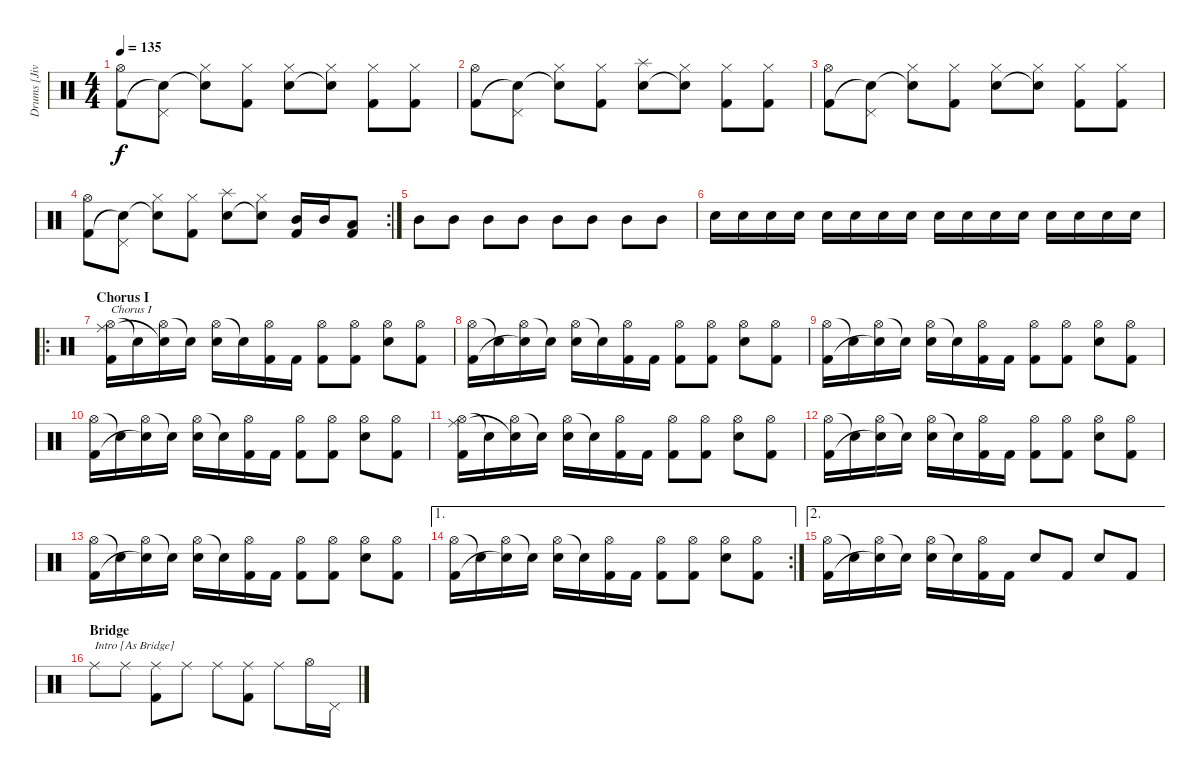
\track ("Drums [Jivarp]" "Drums [Jiv") {instrument percussion}
\staff {score}
\articulation defaults
\ts (4 4)
\tempo 135
\clef neutral
\ks c
("Hi-Hat (open)" "Kick (hit) 2").8{dy f} ("Pedal Hi-Hat (hit)" "Snare (hit)"{t}).8 ("Hi-Hat (closed)" "Snare (hit)"{t}).8 ("Hi-Hat (closed)" "Kick (hit) 2").8 ("Hi-Hat (closed)" "Electric Snare (hit)").8 ("Hi-Hat (closed)" "Snare (hit)"{t}).8 ("Hi-Hat (closed)" "Kick (hit) 2").8 ("Hi-Hat (closed)" "Kick (hit) 2").8 |
("Hi-Hat (open)" "Kick (hit) 2").8 ("Pedal Hi-Hat (hit)" "Snare (hit)"{t}).8 ("Hi-Hat (closed)" "Snare (hit)"{t}).8 ("Hi-Hat (closed)" "Kick (hit) 2").8 ("Splash (hit)" "Electric Snare (hit)").8 ("Hi-Hat (closed)" "Snare (hit)"{t}).8 ("Hi-Hat (closed)" "Kick (hit) 2").8 ("Hi-Hat (closed)" "Kick (hit) 2").8 |
("Hi-Hat (open)" "Kick (hit) 2").8 ("Pedal Hi-Hat (hit)" "Snare (hit)"{t}).8 ("Hi-Hat (closed)" "Snare (hit)"{t}).8 ("Hi-Hat (closed)" "Kick (hit) 2").8 ("Hi-Hat (closed)" "Electric Snare (hit)").8 ("Hi-Hat (closed)" "Snare (hit)"{t}).8 ("Hi-Hat (closed)" "Kick (hit) 2").8 ("Hi-Hat (closed)" "Kick (hit) 2").8 |
\rc 2
("Hi-Hat (open)" "Kick (hit) 2").8 ("Pedal Hi-Hat (hit)" "Snare (hit)"{t}).8 ("Hi-Hat (closed)" "Snare (hit)"{t}).8 ("Hi-Hat (closed)" "Kick (hit) 2").8 ("Splash (hit)" "Electric Snare (hit)").8 ("Hi-Hat (closed)" "Snare (hit)"{t}).8 ("Mid Tom (hit)" "Kick (hit) 2").16 "Mid Tom (hit)".16 ("Low Tom (hit)" "Kick (hit) 2").8 |
"Mid Tom (hit)".8 "Mid Tom (hit)".8 "Mid Tom (hit)".8 "Mid Tom (hit)".8 "Mid Tom (hit)".8 "Mid Tom (hit)".8 "Mid Tom (hit)".8 "Mid Tom (hit)".8 |
"Electric Snare (hit)".16 "Electric Snare (hit)".16 "Electric Snare (hit)".16 "Electric Snare (hit)".16 "Electric Snare (hit)".16 "Electric Snare (hit)".16 "Electric Snare (hit)".16 "Electric Snare (hit)".16 "Electric Snare (hit)".16 "Electric Snare (hit)".16 "Electric Snare (hit)".16 "Electric Snare (hit)".16 "Electric Snare (hit)".16 "Electric Snare (hit)".16 "Electric Snare (hit)".16 "Electric Snare (hit)".16 |
\ro
\section ("" "Chorus I")
("Hi-Hat (open)" "Ride (middle)" "Kick (hit) 2").16{txt "Chorus I"} "Snare (hit)"{t}.16 ("Hi-Hat (open)" "Snare (hit)"{t}).16 "Snare (hit)"{t}.16 ("Hi-Hat (open)" "Electric Snare (hit)").16 "Snare (hit)"{t}.16 ("Hi-Hat (open)" "Kick (hit) 2").16 "Kick (hit) 2".16 ("Hi-Hat (open)" "Kick (hit) 2").8 ("Hi-Hat (open)" "Kick (hit) 2").8 ("Hi-Hat (open)" "Electric Snare (hit)").8 ("Hi-Hat (open)" "Kick (hit) 2").8 |
("Hi-Hat (open)" "Kick (hit) 2").16 "Snare (hit)"{t}.16 ("Hi-Hat (open)" "Snare (hit)"{t}).16 "Snare (hit)"{t}.16 ("Hi-Hat (open)" "Electric Snare (hit)").16 "Snare (hit)"{t}.16 ("Hi-Hat (open)" "Kick (hit) 2").16 "Kick (hit) 2".16 ("Hi-Hat (open)" "Kick (hit) 2").8 ("Hi-Hat (open)" "Kick (hit) 2").8 ("Hi-Hat (open)" "Electric Snare (hit)").8 ("Hi-Hat (open)" "Kick (hit) 2").8 |
("Hi-Hat (open)" "Kick (hit) 2").16 "Snare (hit)"{t}.16 ("Hi-Hat (open)" "Snare (hit)"{t}).16 "Snare (hit)"{t}.16 ("Hi-Hat (open)" "Electric Snare (hit)").16 "Snare (hit)"{t}.16 ("Hi-Hat (open)" "Kick (hit) 2").16 "Kick (hit) 2".16 ("Hi-Hat (open)" "Kick (hit) 2").8 ("Hi-Hat (open)" "Kick (hit) 2").8 ("Hi-Hat (open)" "Electric Snare (hit)").8 ("Hi-Hat (open)" "Kick (hit) 2").8 |
("Hi-Hat (open)" "Kick (hit) 2").16 "Snare (hit)"{t}.16 ("Hi-Hat (open)" "Snare (hit)"{t}).16 "Snare (hit)"{t}.16 ("Hi-Hat (open)" "Electric Snare (hit)").16 "Snare (hit)"{t}.16 ("Hi-Hat (open)" "Kick (hit) 2").16 "Kick (hit) 2".16 ("Hi-Hat (open)" "Kick (hit) 2").8 ("Hi-Hat (open)" "Kick (hit) 2").8 ("Hi-Hat (open)" "Electric Snare (hit)").8 ("Hi-Hat (open)" "Kick (hit) 2").8 |
("Hi-Hat (open)" "Ride (middle)" "Kick (hit) 2").16 "Snare (hit)"{t}.16 ("Hi-Hat (open)" "Snare (hit)"{t}).16 "Snare (hit)"{t}.16 ("Hi-Hat (open)" "Electric Snare (hit)").16 "Snare (hit)"{t}.16 ("Hi-Hat (open)" "Kick (hit) 2").16 "Kick (hit) 2".16 ("Hi-Hat (open)" "Kick (hit) 2").8 ("Hi-Hat (open)" "Kick (hit) 2").8 ("Hi-Hat (open)" "Electric Snare (hit)").8 ("Hi-Hat (open)" "Kick (hit) 2").8 |
("Hi-Hat (open)" "Kick (hit) 2").16 "Snare (hit)"{t}.16 ("Hi-Hat (open)" "Snare (hit)"{t}).16 "Snare (hit)"{t}.16 ("Hi-Hat (open)" "Electric Snare (hit)").16 "Snare (hit)"{t}.16 ("Hi-Hat (open)" "Kick (hit) 2").16 "Kick (hit) 2".16 ("Hi-Hat (open)" "Kick (hit) 2").8 ("Hi-Hat (open)" "Kick (hit) 2").8 ("Hi-Hat (open)" "Electric Snare (hit)").8 ("Hi-Hat (open)" "Kick (hit) 2").8 |
("Hi-Hat (open)" "Kick (hit) 2").16 "Snare (hit)"{t}.16 ("Hi-Hat (open)" "Snare (hit)"{t}).16 "Snare (hit)"{t}.16 ("Hi-Hat (open)" "Electric Snare (hit)").16 "Snare (hit)"{t}.16 ("Hi-Hat (open)" "Kick (hit) 2").16 "Kick (hit) 2".16 ("Hi-Hat (open)" "Kick (hit) 2").8 ("Hi-Hat (open)" "Kick (hit) 2").8 ("Hi-Hat (open)" "Electric Snare (hit)").8 ("Hi-Hat (open)" "Kick (hit) 2").8 |
\ae 1
\rc 2
("Hi-Hat (open)" "Kick (hit) 2").16 "Snare (hit)"{t}.16 ("Hi-Hat (open)" "Snare (hit)"{t}).16 "Snare (hit)"{t}.16 ("Hi-Hat (open)" "Electric Snare (hit)").16 "Snare (hit)"{t}.16 ("Hi-Hat (open)" "Kick (hit) 2").16 "Kick (hit) 2".16 ("Hi-Hat (open)" "Kick (hit) 2").8 ("Hi-Hat (open)" "Kick (hit) 2").8 ("Hi-Hat (open)" "Electric Snare (hit)").8 ("Hi-Hat (open)" "Kick (hit) 2").8 |
\ae 2
("Hi-Hat (open)" "Kick (hit) 2").16 "Snare (hit)"{t}.16 ("Hi-Hat (open)" "Snare (hit)"{t}).16 "Snare (hit)"{t}.16 ("Hi-Hat (open)" "Electric Snare (hit)").16 "Snare (hit)"{t}.16 ("Hi-Hat (open)" "Kick (hit) 2").16 "Kick (hit) 2".16 "Electric Snare (hit)".8 "Kick (hit) 2".8 "Electric Snare (hit)".8 "Kick (hit) 2".8 |
\section ("" "Bridge")
"Ride (middle)".8{txt "Intro [As Bridge]"} "Ride (middle)".8 ("Ride (middle)" "Kick (hit) 2").8 "Ride (middle)".8 "Ride (middle)".8 ("Ride (middle)" "Kick (hit) 2").8 "Ride (middle)".8 "Hi-Hat (open)".16 "Pedal Hi-Hat (hit)".16
